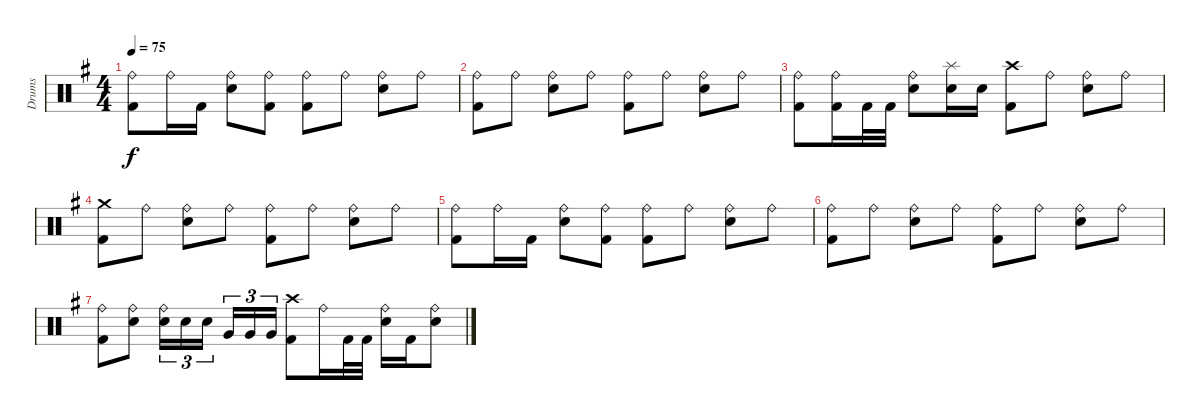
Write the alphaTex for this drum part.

\track ("Drums" "Drums") {instrument percussion}
\staff {score}
\articulation defaults
\ts (4 4)
\tempo 75
\clef neutral
\ks eminor
("Ride (bell)" "Kick (hit) 2").8{dy f} "Ride (bell)".16 "Kick (hit) 2".16 ("Ride (bell)" "Snare (hit) 2").8 ("Ride (bell)" "Kick (hit) 2").8 ("Ride (bell)" "Kick (hit) 2").8 "Ride (bell)".8 ("Ride (bell)" "Snare (hit) 2").8 "Ride (bell)".8 |
("Ride (bell)" "Kick (hit) 2").8 "Ride (bell)".8 ("Ride (bell)" "Snare (hit) 2").8 "Ride (bell)".8 ("Ride (bell)" "Kick (hit) 2").8 "Ride (bell)".8 ("Ride (bell)" "Snare (hit) 2").8 "Ride (bell)".8 |
("Ride (bell)" "Kick (hit) 2").8 ("Ride (bell)" "Kick (hit) 2").16 "Kick (hit) 2".32 "Kick (hit) 2".32 ("Ride (bell)" "Snare (hit) 2").8 ("Splash (hit)" "Snare (hit) 2").16 "Snare (hit) 2".16 ("Crash high (hit)" "Kick (hit) 2").8 "Ride (bell)".8 ("Ride (bell)" "Snare (hit) 2").8 "Ride (bell)".8 |
("Crash medium (hit)" "Kick (hit) 2").8 "Ride (bell)".8 ("Ride (bell)" "Snare (hit) 2").8 "Ride (bell)".8 ("Ride (bell)" "Kick (hit) 2").8 "Ride (bell)".8 ("Ride (bell)" "Snare (hit) 2").8 "Ride (bell)".8 |
("Ride (bell)" "Kick (hit) 2").8 "Ride (bell)".16 "Kick (hit) 2".16 ("Ride (bell)" "Snare (hit) 2").8 ("Ride (bell)" "Kick (hit) 2").8 ("Ride (bell)" "Kick (hit) 2").8 "Ride (bell)".8 ("Ride (bell)" "Snare (hit) 2").8 "Ride (bell)".8 |
("Ride (bell)" "Kick (hit) 2").8 "Ride (bell)".8 ("Ride (bell)" "Snare (hit) 2").8 "Ride (bell)".8 ("Ride (bell)" "Kick (hit) 2").8 "Ride (bell)".8 ("Ride (bell)" "Snare (hit) 2").8 "Ride (bell)".8 |
("Ride (bell)" "Kick (hit) 2").8 ("Ride (bell)" "Snare (hit) 2").8 ("Ride (bell)" "Snare (hit) 2").16{tu (3 2)} "Snare (hit) 2".16{tu (3 2)} "Snare (hit) 2".16{tu (3 2) beam splitsecondary} "Very Low Tom (hit)".16{tu (3 2)} "Very Low Tom (hit)".16{tu (3 2)} "Very Low Tom (hit)".16{tu (3 2)} ("Crash high (hit)" "Kick (hit) 2").8 "Ride (bell)".16 "Kick (hit) 2".32 "Kick (hit) 2".32 ("Ride (bell)" "Snare (hit) 2").16 "Kick (hit) 2".16 ("Ride (bell)" "Snare (hit) 2").8
